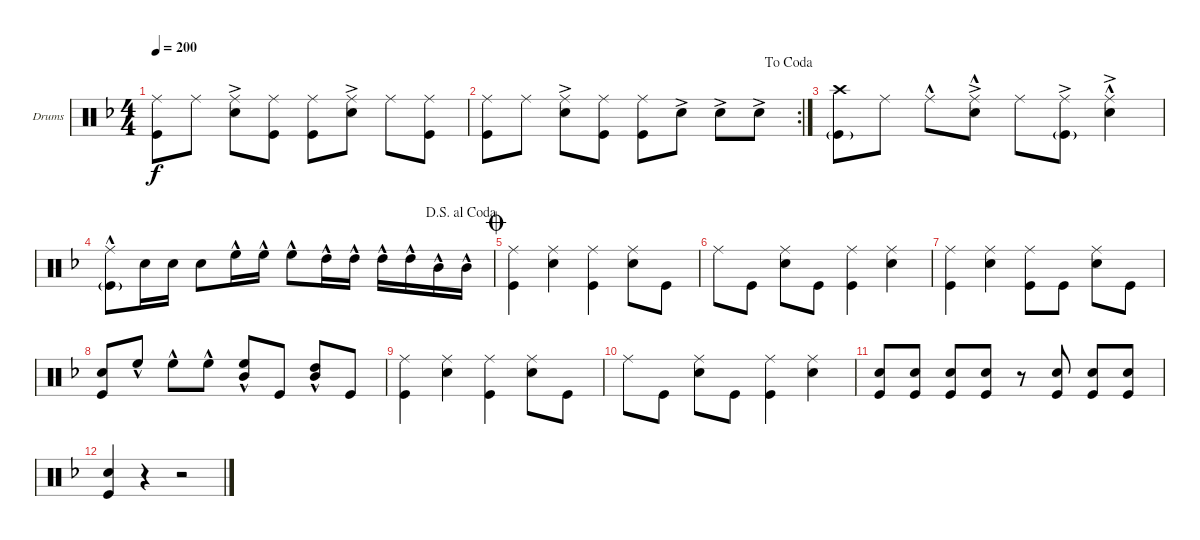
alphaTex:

\bracketExtendMode groupsimilarinstruments
\firstSystemTrackNameOrientation horizontal
\otherSystemsTrackNameOrientation horizontal
\track ("Drumkit" "Drums") {instrument percussion}
\staff {score}
\articulation defaults
\ts (4 4)
\tempo 200
\clef neutral
\ks dminor
("Kick (hit)" "Ride (middle)").8{dy f} "Ride (middle)".8 ("Snare (hit) 2"{ac} "Ride (middle)").8 ("Kick (hit)" "Ride (middle)").8 ("Kick (hit)" "Ride (middle)").8 ("Snare (hit) 2"{ac} "Ride (middle)").8 "Ride (middle)".8 ("Kick (hit)" "Ride (middle)").8 |
\rc 2
\jump dacoda
("Kick (hit)" "Ride (middle)").8 "Ride (middle)".8 ("Snare (hit) 2"{ac} "Ride (middle)").8 ("Kick (hit)" "Ride (middle)").8 ("Kick (hit)" "Ride (middle)").8 "Snare (hit) 2"{ac}.8 "Snare (hit) 2"{ac}.8 "Snare (hit) 2"{ac}.8 |
("Kick (hit)"{g} "Crash high (hit)").8 "Ride (middle)".8 "Ride (middle)"{hac}.8 ("Snare (hit) 2"{ac} "Ride (middle)"{hac}).8 "Ride (middle)".8 ("Ride (middle)"{ac} "Kick (hit)"{g}).8 ("Ride (middle)"{hac} "Snare (hit) 2"{ac}).4 |
\jump dalsegnoalcoda
("Ride (middle)"{hac} "Kick (hit)"{g}).8 "Snare (hit) 2".16 "Snare (hit) 2".16 "Snare (hit) 2".8 "High Floor Tom (hit)"{hac}.16 "High Floor Tom (hit)"{hac}.16 "High Floor Tom (hit)"{hac}.8 "High Tom (hit)"{hac}.16 "High Tom (hit)"{hac}.16 "High Tom (hit)"{hac}.16 "High Tom (hit)"{hac}.16 "Mid Tom (hit)"{hac}.16 "Mid Tom (hit)"{hac}.16 |
\jump coda
("Kick (hit)" "Ride (middle)").4 ("Snare (hit) 2" "Ride (middle)").4 ("Kick (hit)" "Ride (middle)").4 ("Snare (hit) 2" "Ride (middle)").8 "Kick (hit)".8 |
"Ride (middle)".8 "Kick (hit)".8 ("Snare (hit) 2" "Ride (middle)").8 "Kick (hit)".8 ("Ride (middle)" "Kick (hit)").4 ("Snare (hit) 2" "Ride (middle)").4 |
("Kick (hit)" "Ride (middle)").4 ("Snare (hit) 2" "Ride (middle)").4 ("Kick (hit)" "Ride (middle)").8 "Kick (hit)".8 ("Snare (hit) 2" "Ride (middle)").8 "Kick (hit)".8 |
("Snare (hit) 2" "Kick (hit)").8 "High Floor Tom (hit)"{hac}.8 "High Floor Tom (hit)"{hac}.8 "High Floor Tom (hit)"{hac}.8 ("High Floor Tom (hit)"{hac} "Mid Tom (hit)"{hac}).8 "Kick (hit)".8 ("Mid Tom (hit)"{hac} "High Tom (hit)"{hac}).8 "Kick (hit)".8 |
("Kick (hit)" "Ride (middle)").4 ("Snare (hit) 2" "Ride (middle)").4 ("Kick (hit)" "Ride (middle)").4 ("Snare (hit) 2" "Ride (middle)").8 "Kick (hit)".8 |
"Ride (middle)".8 "Kick (hit)".8 ("Snare (hit) 2" "Ride (middle)").8 "Kick (hit)".8 ("Ride (middle)" "Kick (hit)").4 ("Snare (hit) 2" "Ride (middle)").4 |
("Snare (hit) 2" "Kick (hit)").8 ("Snare (hit) 2" "Kick (hit)").8 ("Snare (hit) 2" "Kick (hit)").8 ("Snare (hit) 2" "Kick (hit)").8 r.8 ("Snare (hit) 2" "Kick (hit)").8 ("Snare (hit) 2" "Kick (hit)").8 ("Snare (hit) 2" "Kick (hit)").8 |
("Snare (hit) 2" "Kick (hit)").4 r.4 r.2
